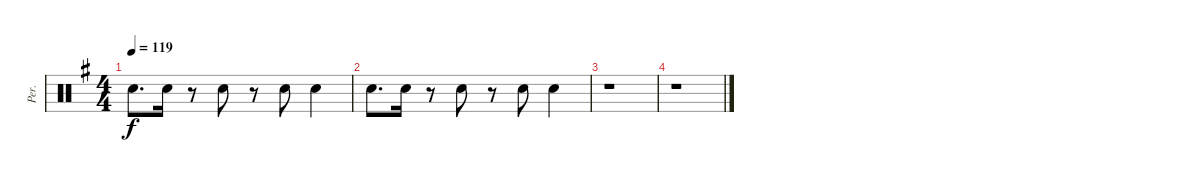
\track ("Per." "Per.") {instrument percussion}
\staff {score}
\articulation defaults
\ts (4 4)
\tempo 119
\clef neutral
\ks eminor "Hand Clap (hit)".8{d dy f} "Hand Clap (hit)".16
r.8 "Hand Clap (hit)".8 r.8 "Hand Clap (hit)".8 "Hand Clap (hit)".4 |
"Hand Clap (hit)".8{d} "Hand Clap (hit)".16 r.8 "Hand Clap (hit)".8 r.8 "Hand Clap (hit)".8 "Hand Clap (hit)".4 |
r.1 |
r.1
